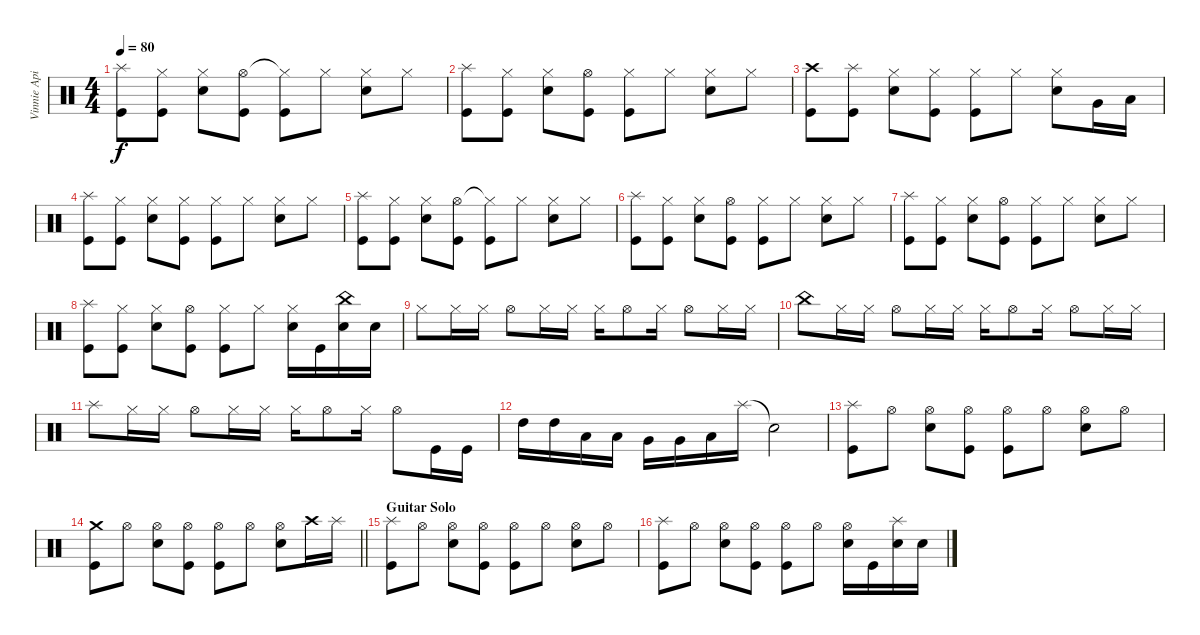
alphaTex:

\track ("Vinnie Apice" "Vinnie Api") {instrument percussion}
\staff {score}
\articulation defaults
\ts (4 4)
\tempo 80
\clef neutral
\ks c
("Splash (hit)" "Kick (hit)").8{dy f} ("Hi-Hat (closed)" "Kick (hit)").8 ("Hi-Hat (closed)" "Snare (hit) 2").8 ("Hi-Hat (open)" "Kick (hit)").8 ("Hi-Hat (closed)"{t} "Kick (hit)").8 "Hi-Hat (closed)".8 ("Hi-Hat (closed)" "Snare (hit) 2").8 "Hi-Hat (closed)".8 |
("Splash (hit)" "Kick (hit)").8 ("Hi-Hat (closed)" "Kick (hit)").8 ("Hi-Hat (closed)" "Snare (hit) 2").8 ("Hi-Hat (open)" "Kick (hit)").8 ("Hi-Hat (closed)" "Kick (hit)").8 "Hi-Hat (closed)".8 ("Hi-Hat (closed)" "Snare (hit) 2").8 "Hi-Hat (closed)".8 |
("Crash high (hit)" "Kick (hit)").8 ("Splash (hit)" "Kick (hit)").8 ("Hi-Hat (closed)" "Snare (hit) 2").8 ("Hi-Hat (closed)" "Kick (hit)").8 ("Hi-Hat (closed)" "Kick (hit)").8 "Hi-Hat (closed)".8 ("Hi-Hat (closed)" "Snare (hit) 2").8 "Very Low Tom (hit)".16 "Low Floor Tom (hit)".16 |
("Splash (hit)" "Kick (hit)").8 ("Hi-Hat (closed)" "Kick (hit)").8 ("Hi-Hat (closed)" "Snare (hit) 2").8 ("Hi-Hat (closed)" "Kick (hit)").8 ("Hi-Hat (closed)" "Kick (hit)").8 "Hi-Hat (closed)".8 ("Hi-Hat (closed)" "Snare (hit) 2").8 "Hi-Hat (closed)".8 |
("Splash (hit)" "Kick (hit)").8 ("Hi-Hat (closed)" "Kick (hit)").8 ("Hi-Hat (closed)" "Snare (hit) 2").8 ("Hi-Hat (open)" "Kick (hit)").8 ("Hi-Hat (closed)"{t} "Kick (hit)").8 "Hi-Hat (closed)".8 ("Hi-Hat (closed)" "Snare (hit) 2").8 "Hi-Hat (closed)".8 |
("Splash (hit)" "Kick (hit)").8 ("Hi-Hat (closed)" "Kick (hit)").8 ("Hi-Hat (closed)" "Snare (hit) 2").8 ("Hi-Hat (open)" "Kick (hit)").8 ("Hi-Hat (closed)" "Kick (hit)").8 "Hi-Hat (closed)".8 ("Hi-Hat (closed)" "Snare (hit) 2").8 "Hi-Hat (closed)".8 |
("Splash (hit)" "Kick (hit)").8 ("Hi-Hat (closed)" "Kick (hit)").8 ("Hi-Hat (closed)" "Snare (hit) 2").8 ("Hi-Hat (open)" "Kick (hit)").8 ("Hi-Hat (closed)" "Kick (hit)").8 "Hi-Hat (closed)".8 ("Hi-Hat (closed)" "Snare (hit) 2").8 "Hi-Hat (closed)".8 |
("Splash (hit)" "Kick (hit)").8 ("Hi-Hat (closed)" "Kick (hit)").8 ("Hi-Hat (closed)" "Snare (hit) 2").8 ("Hi-Hat (open)" "Kick (hit)").8 ("Hi-Hat (closed)" "Kick (hit)").8 "Hi-Hat (closed)".8 ("Hi-Hat (closed)" "Snare (hit) 2").16 "Kick (hit)".16 ("China (hit)" "Snare (hit) 2").16 "Snare (hit) 2".16 |
"Hi-Hat (closed)".8 "Hi-Hat (closed)".16 "Hi-Hat (closed)".16 "Hi-Hat (open)".8 "Hi-Hat (closed)".16 "Hi-Hat (closed)".16 "Hi-Hat (closed)".16 "Hi-Hat (open)".8 "Hi-Hat (closed)".16 "Hi-Hat (open)".8 "Hi-Hat (closed)".16 "Hi-Hat (closed)".16 |
"China (hit)".8 "Hi-Hat (closed)".16 "Hi-Hat (closed)".16 "Hi-Hat (open)".8 "Hi-Hat (closed)".16 "Hi-Hat (closed)".16 "Hi-Hat (closed)".16 "Hi-Hat (open)".8 "Hi-Hat (closed)".16 "Hi-Hat (open)".8 "Hi-Hat (closed)".16 "Hi-Hat (closed)".16 |
"Splash (hit)".8 "Hi-Hat (closed)".16 "Hi-Hat (closed)".16 "Hi-Hat (open)".8 "Hi-Hat (closed)".16 "Hi-Hat (closed)".16 "Hi-Hat (closed)".16 "Hi-Hat (open)".8 "Hi-Hat (closed)".16 "Hi-Hat (open)".8 "Kick (hit)".16 "Kick (hit)".16 |
"High Tom (hit)".16 "High Tom (hit)".16 "Low Tom (hit)".16 "Low Tom (hit)".16 "Very Low Tom (hit)".16 "Very Low Tom (hit)".16 "Low Floor Tom (hit)".16 "Splash (hit)".16 "Snare (hit)"{t}.2 |
("Splash (hit)" "Kick (hit)").8 "Hi-Hat (open)".8 ("Hi-Hat (open)" "Snare (hit) 2").8 ("Hi-Hat (open)" "Kick (hit)").8 ("Hi-Hat (open)" "Kick (hit)").8 "Hi-Hat (open)".8 ("Hi-Hat (open)" "Snare (hit) 2").8 "Hi-Hat (open)".8 |
\barLineRight lightlight
("Crash medium (hit)" "Kick (hit)").8 "Hi-Hat (open)".8 ("Hi-Hat (open)" "Snare (hit) 2").8 ("Hi-Hat (open)" "Kick (hit)").8 ("Hi-Hat (open)" "Kick (hit)").8 "Hi-Hat (open)".8 ("Hi-Hat (open)" "Snare (hit) 2").8 "Crash high (hit)".16 "Splash (hit)".16 |
\section ("" "Guitar Solo")
("Splash (hit)" "Kick (hit)").8 "Hi-Hat (open)".8 ("Hi-Hat (open)" "Snare (hit) 2").8 ("Hi-Hat (open)" "Kick (hit)").8 ("Hi-Hat (open)" "Kick (hit)").8 "Hi-Hat (open)".8 ("Hi-Hat (open)" "Snare (hit) 2").8 "Hi-Hat (open)".8 |
("Splash (hit)" "Kick (hit)").8 "Hi-Hat (open)".8 ("Hi-Hat (open)" "Snare (hit) 2").8 ("Hi-Hat (open)" "Kick (hit)").8 ("Hi-Hat (open)" "Kick (hit)").8 "Hi-Hat (open)".8 ("Hi-Hat (open)" "Snare (hit) 2").16 "Kick (hit)".16 ("Splash (hit)" "Snare (hit) 2").16 "Snare (hit) 2".16
